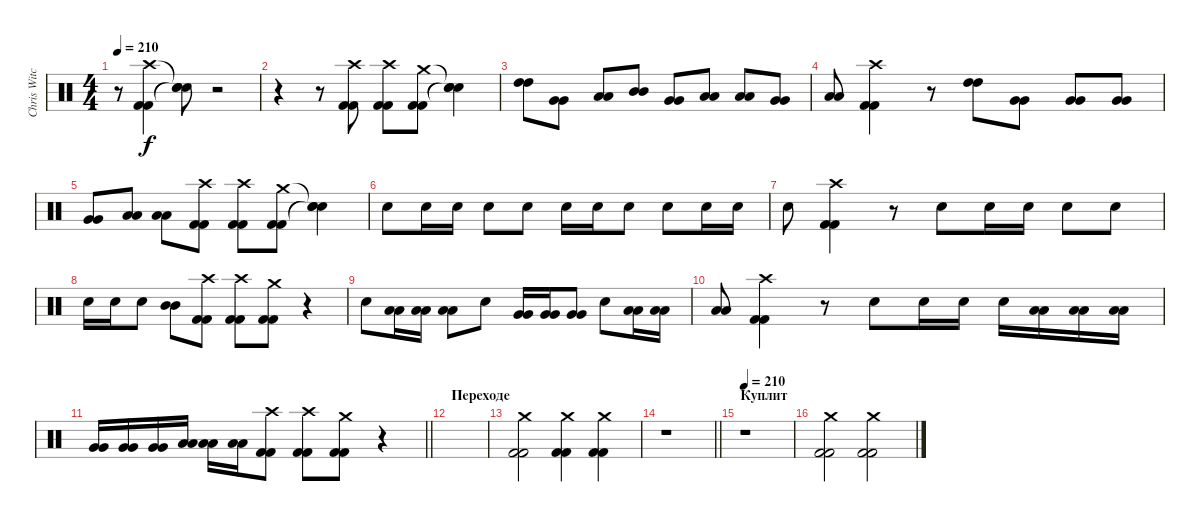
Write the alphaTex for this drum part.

\track ("Chris Witchhunter" "Chris Witc") {instrument percussion}
\staff {score}
\articulation defaults
\ts (4 4)
\tempo 210
\clef neutral
\ks c
r.8{dy f} ("Crash high (hit)" "Kick (hit) 2" "Kick (hit) 2").4 ("Snare (hit)"{t} "Snare (hit)"{t} "Snare (hit)"{t}).8 r.2 |
r.4 r.8 ("Crash high (hit)" "Kick (hit) 2" "Kick (hit) 2").8 ("Crash high (hit)" "Kick (hit) 2" "Kick (hit) 2").8 ("Crash medium (hit)" "Kick (hit) 2" "Kick (hit) 2").8 ("Snare (hit)"{t} "Snare (hit)"{t} "Snare (hit)"{t}).4 |
("High Tom (hit)" "High Tom (hit)").8 ("Very Low Tom (hit)" "Very Low Tom (hit)").8 ("Low Floor Tom (hit)" "Low Floor Tom (hit)").8 ("Mid Tom (hit)" "Mid Tom (hit)").8 ("Very Low Tom (hit)" "Very Low Tom (hit)").8 ("Low Floor Tom (hit)" "Low Floor Tom (hit)").8 ("Low Tom (hit)" "Low Tom (hit)").8 ("Very Low Tom (hit)" "Very Low Tom (hit)").8 |
("Low Floor Tom (hit)" "Low Floor Tom (hit)").8 ("Crash high (hit)" "Kick (hit) 2" "Kick (hit) 2").4 r.8 ("High Tom (hit)" "High Tom (hit)").8 ("Very Low Tom (hit)" "Very Low Tom (hit)").8 ("Very Low Tom (hit)" "Very Low Tom (hit)").8 ("Very Low Tom (hit)" "Very Low Tom (hit)").8 |
("Very Low Tom (hit)" "Very Low Tom (hit)").8 ("Low Floor Tom (hit)" "Low Floor Tom (hit)").8 ("Low Floor Tom (hit)" "Low Floor Tom (hit)").8 ("Crash high (hit)" "Kick (hit) 2" "Kick (hit) 2").8 ("Crash high (hit)" "Kick (hit) 2" "Kick (hit) 2").8 ("Crash medium (hit)" "Kick (hit) 2" "Kick (hit) 2").8 ("Snare (hit)"{t} "Snare (hit)"{t} "Snare (hit)"{t}).4 |
"Electric Snare (hit)".8 "Electric Snare (hit)".16 "Electric Snare (hit)".16 "Electric Snare (hit)".8 "Electric Snare (hit)".8 "Electric Snare (hit)".16 "Electric Snare (hit)".16 "Electric Snare (hit)".8 "Electric Snare (hit)".8 "Electric Snare (hit)".16 "Electric Snare (hit)".16 |
"Electric Snare (hit)".8 ("Crash high (hit)" "Kick (hit) 2" "Kick (hit) 2").4 r.8 "Electric Snare (hit)".8 "Electric Snare (hit)".16 "Electric Snare (hit)".16 "Electric Snare (hit)".8 "Electric Snare (hit)".8 |
"Electric Snare (hit)".16 "Electric Snare (hit)".16 "Electric Snare (hit)".8 ("Mid Tom (hit)" "Mid Tom (hit)").8 ("Crash high (hit)" "Kick (hit) 2" "Kick (hit) 2").8 ("Crash high (hit)" "Kick (hit) 2" "Kick (hit) 2").8 ("Crash medium (hit)" "Kick (hit) 2" "Kick (hit) 2").8 r.4 |
"Electric Snare (hit)".8 ("Low Tom (hit)" "Low Tom (hit)").16 ("Low Tom (hit)" "Low Tom (hit)").16 ("Low Tom (hit)" "Low Tom (hit)").8 "Electric Snare (hit)".8 ("Very Low Tom (hit)" "Very Low Tom (hit)").16 ("Very Low Tom (hit)" "Very Low Tom (hit)").16 ("Very Low Tom (hit)" "Very Low Tom (hit)").8 "Electric Snare (hit)".8 ("Low Floor Tom (hit)" "Low Floor Tom (hit)").16 ("Low Floor Tom (hit)" "Low Floor Tom (hit)").16 |
("Low Floor Tom (hit)" "Low Floor Tom (hit)").8 ("Crash high (hit)" "Kick (hit) 2" "Kick (hit) 2").4 r.8 "Electric Snare (hit)".8 "Electric Snare (hit)".16 "Electric Snare (hit)".16 "Electric Snare (hit)".16 ("Low Tom (hit)" "Low Tom (hit)").16 ("Low Tom (hit)" "Low Tom (hit)").16 ("Low Tom (hit)" "Low Tom (hit)").16 |
\barLineRight lightlight
("Very Low Tom (hit)" "Very Low Tom (hit)").16 ("Very Low Tom (hit)" "Very Low Tom (hit)").16 ("Very Low Tom (hit)" "Very Low Tom (hit)").16 ("Low Floor Tom (hit)" "Low Floor Tom (hit)").16 ("Low Floor Tom (hit)" "Low Floor Tom (hit)").16 ("Low Floor Tom (hit)" "Low Floor Tom (hit)").16 ("Crash high (hit)" "Kick (hit) 2" "Kick (hit) 2").8 ("Crash high (hit)" "Kick (hit) 2" "Kick (hit) 2").8 ("Crash medium (hit)" "Kick (hit) 2" "Kick (hit) 2").8 r.4 |
\section ("" "Переходе")
|
("Crash medium (hit)" "Kick (hit) 2" "Kick (hit) 2").2 ("Crash medium (hit)" "Kick (hit) 2" "Kick (hit) 2").4 ("Crash medium (hit)" "Kick (hit) 2" "Kick (hit) 2").4 |
\barLineRight lightlight
r.1 |
\section ("" "Куплит")
\tempo 210
r.1 |
("Crash medium (hit)" "Kick (hit) 2" "Kick (hit) 2").2 ("Crash medium (hit)" "Kick (hit) 2" "Kick (hit) 2").2
